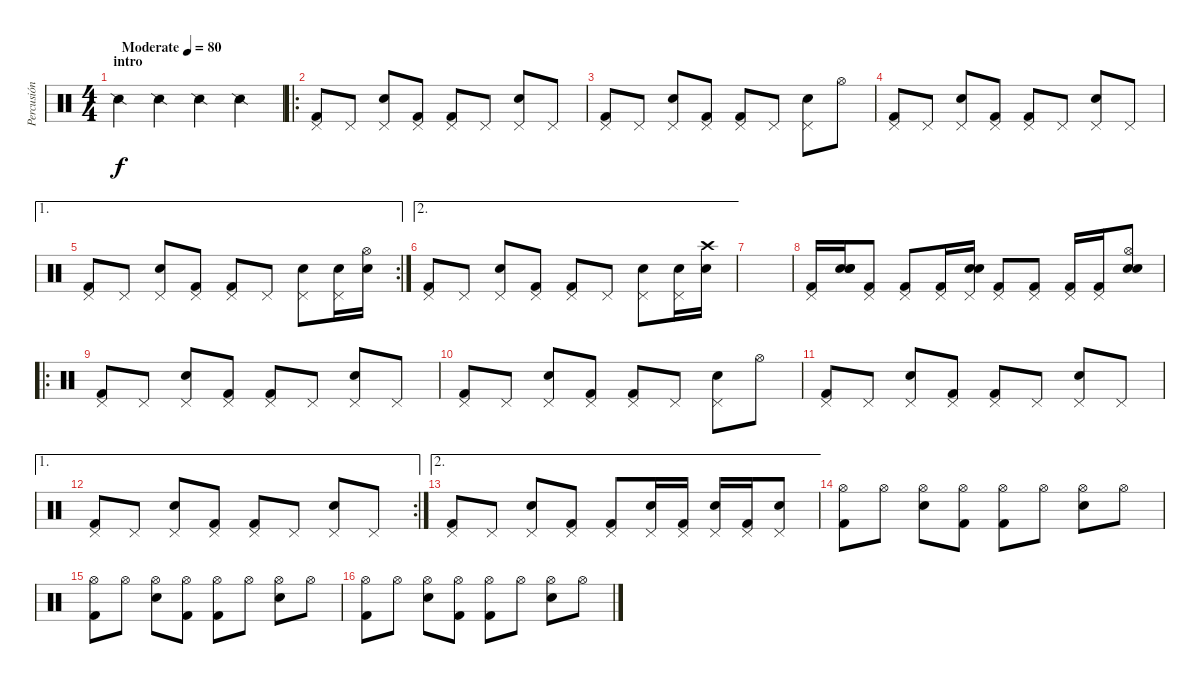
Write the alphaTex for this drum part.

\track ("Percusión" "Percusión") {instrument percussion}
\staff {score}
\articulation defaults
\ts (4 4)
\section ("" "intro")
\tempo (80 "Moderate")
\clef neutral
\ks c "Snare (side stick) 2".4{dy f} "Snare (side stick) 2".4 "Snare (side stick) 2".4 "Snare (side stick) 2".4
|
\ro
("Pedal Hi-Hat (hit)" "Kick (hit) 2").8 "Pedal Hi-Hat (hit)".8 ("Pedal Hi-Hat (hit)" "Electric Snare (hit)").8 ("Pedal Hi-Hat (hit)" "Kick (hit) 2").8 ("Pedal Hi-Hat (hit)" "Kick (hit) 2").8 "Pedal Hi-Hat (hit)".8 ("Pedal Hi-Hat (hit)" "Electric Snare (hit)").8 "Pedal Hi-Hat (hit)".8 |
("Pedal Hi-Hat (hit)" "Kick (hit) 2").8 "Pedal Hi-Hat (hit)".8 ("Pedal Hi-Hat (hit)" "Electric Snare (hit)").8 ("Pedal Hi-Hat (hit)" "Kick (hit) 2").8 ("Pedal Hi-Hat (hit)" "Kick (hit) 2").8 "Pedal Hi-Hat (hit)".8 ("Pedal Hi-Hat (hit)" "Electric Snare (hit)").8 "Hi-Hat (open)".8 |
("Pedal Hi-Hat (hit)" "Kick (hit) 2").8 "Pedal Hi-Hat (hit)".8 ("Pedal Hi-Hat (hit)" "Electric Snare (hit)").8 ("Pedal Hi-Hat (hit)" "Kick (hit) 2").8 ("Pedal Hi-Hat (hit)" "Kick (hit) 2").8 "Pedal Hi-Hat (hit)".8 ("Pedal Hi-Hat (hit)" "Electric Snare (hit)").8 "Pedal Hi-Hat (hit)".8 |
\ae 1
\rc 2
("Pedal Hi-Hat (hit)" "Kick (hit) 2").8 "Pedal Hi-Hat (hit)".8 ("Pedal Hi-Hat (hit)" "Electric Snare (hit)").8 ("Pedal Hi-Hat (hit)" "Kick (hit) 2").8 ("Pedal Hi-Hat (hit)" "Kick (hit) 2").8 "Pedal Hi-Hat (hit)".8 ("Pedal Hi-Hat (hit)" "Electric Snare (hit)").8 ("Pedal Hi-Hat (hit)" "Electric Snare (hit)").16 ("Hi-Hat (open)" "Electric Snare (hit)").16 |
\ae 2
("Pedal Hi-Hat (hit)" "Kick (hit) 2").8 "Pedal Hi-Hat (hit)".8 ("Pedal Hi-Hat (hit)" "Electric Snare (hit)").8 ("Pedal Hi-Hat (hit)" "Kick (hit) 2").8 ("Pedal Hi-Hat (hit)" "Kick (hit) 2").8 "Pedal Hi-Hat (hit)".8 ("Pedal Hi-Hat (hit)" "Electric Snare (hit)").8 ("Pedal Hi-Hat (hit)" "Electric Snare (hit)").16 ("Crash high (hit)" "Electric Snare (hit)").16 |
|
("Pedal Hi-Hat (hit)" "Kick (hit) 2").16 ("Electric Snare (hit)" "Snare (hit) 2" "Electric Snare (hit)").16 ("Pedal Hi-Hat (hit)" "Kick (hit) 2").8 ("Pedal Hi-Hat (hit)" "Kick (hit) 2").8 ("Pedal Hi-Hat (hit)" "Kick (hit) 2").16 ("Pedal Hi-Hat (hit)" "Snare (hit) 2" "Electric Snare (hit)").16 ("Pedal Hi-Hat (hit)" "Kick (hit) 2").8 ("Pedal Hi-Hat (hit)" "Kick (hit) 2").8 ("Pedal Hi-Hat (hit)" "Kick (hit) 2").16 ("Pedal Hi-Hat (hit)" "Kick (hit) 2").16 ("Hi-Hat (open)" "Snare (hit) 2" "Electric Snare (hit)").8 |
\ro
("Pedal Hi-Hat (hit)" "Kick (hit) 2").8 "Pedal Hi-Hat (hit)".8 ("Pedal Hi-Hat (hit)" "Electric Snare (hit)").8 ("Pedal Hi-Hat (hit)" "Kick (hit) 2").8 ("Pedal Hi-Hat (hit)" "Kick (hit) 2").8 "Pedal Hi-Hat (hit)".8 ("Pedal Hi-Hat (hit)" "Electric Snare (hit)").8 "Pedal Hi-Hat (hit)".8 |
("Pedal Hi-Hat (hit)" "Kick (hit) 2").8 "Pedal Hi-Hat (hit)".8 ("Pedal Hi-Hat (hit)" "Electric Snare (hit)").8 ("Pedal Hi-Hat (hit)" "Kick (hit) 2").8 ("Pedal Hi-Hat (hit)" "Kick (hit) 2").8 "Pedal Hi-Hat (hit)".8 ("Pedal Hi-Hat (hit)" "Electric Snare (hit)").8 "Hi-Hat (open)".8 |
("Pedal Hi-Hat (hit)" "Kick (hit) 2").8 "Pedal Hi-Hat (hit)".8 ("Pedal Hi-Hat (hit)" "Electric Snare (hit)").8 ("Pedal Hi-Hat (hit)" "Kick (hit) 2").8 ("Pedal Hi-Hat (hit)" "Kick (hit) 2").8 "Pedal Hi-Hat (hit)".8 ("Pedal Hi-Hat (hit)" "Electric Snare (hit)").8 "Pedal Hi-Hat (hit)".8 |
\ae 1
\rc 2
("Pedal Hi-Hat (hit)" "Kick (hit) 2").8 "Pedal Hi-Hat (hit)".8 ("Pedal Hi-Hat (hit)" "Electric Snare (hit)").8 ("Pedal Hi-Hat (hit)" "Kick (hit) 2").8 ("Pedal Hi-Hat (hit)" "Kick (hit) 2").8 "Pedal Hi-Hat (hit)".8 ("Pedal Hi-Hat (hit)" "Electric Snare (hit)").8 "Pedal Hi-Hat (hit)".8 |
\ae 2
("Pedal Hi-Hat (hit)" "Kick (hit) 2").8 "Pedal Hi-Hat (hit)".8 ("Pedal Hi-Hat (hit)" "Electric Snare (hit)").8 ("Pedal Hi-Hat (hit)" "Kick (hit) 2").8 ("Pedal Hi-Hat (hit)" "Kick (hit) 2").8 ("Pedal Hi-Hat (hit)" "Electric Snare (hit)").16 ("Pedal Hi-Hat (hit)" "Kick (hit) 2").16 ("Pedal Hi-Hat (hit)" "Electric Snare (hit)").16 ("Pedal Hi-Hat (hit)" "Kick (hit) 2").16 ("Pedal Hi-Hat (hit)" "Electric Snare (hit)").8 |
("Hi-Hat (open)" "Kick (hit) 2").8 "Hi-Hat (open)".8 ("Hi-Hat (open)" "Electric Snare (hit)").8 ("Hi-Hat (open)" "Kick (hit) 2").8 ("Hi-Hat (open)" "Kick (hit) 2").8 "Hi-Hat (open)".8 ("Hi-Hat (open)" "Electric Snare (hit)").8 "Hi-Hat (open)".8 |
("Hi-Hat (open)" "Kick (hit) 2").8 "Hi-Hat (open)".8 ("Hi-Hat (open)" "Electric Snare (hit)").8 ("Hi-Hat (open)" "Kick (hit) 2").8 ("Hi-Hat (open)" "Kick (hit) 2").8 "Hi-Hat (open)".8 ("Hi-Hat (open)" "Electric Snare (hit)").8 "Hi-Hat (open)".8 |
("Hi-Hat (open)" "Kick (hit) 2").8 "Hi-Hat (open)".8 ("Hi-Hat (open)" "Electric Snare (hit)").8 ("Hi-Hat (open)" "Kick (hit) 2").8 ("Hi-Hat (open)" "Kick (hit) 2").8 "Hi-Hat (open)".8 ("Hi-Hat (open)" "Electric Snare (hit)").8 "Hi-Hat (open)".8
